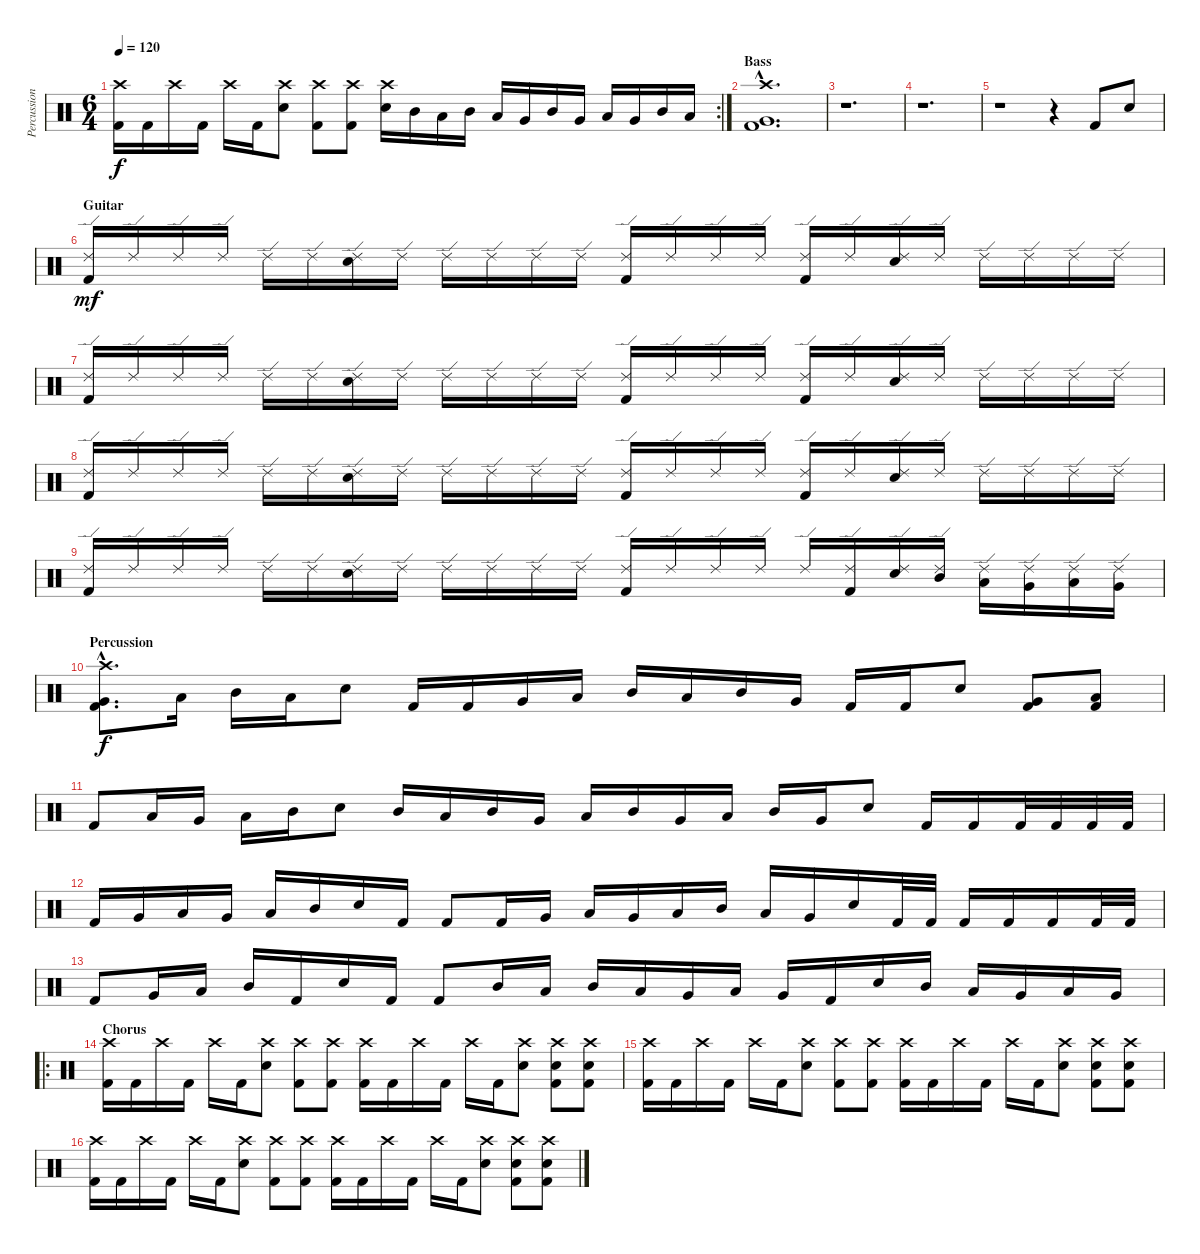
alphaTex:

\track ("Percussion" "Percussion") {instrument percussion}
\staff {score}
\articulation defaults
\rc 2
\ts (6 4)
\tempo 120
\clef neutral
\ks c
("Crash high (hit)" "Kick (hit) 2").16{dy f} "Kick (hit) 2".16 "Crash high (hit)".16 "Kick (hit) 2".16 "Crash high (hit)".16 "Kick (hit) 2".16 ("Crash high (hit)" "Snare (hit) 2").8 ("Crash high (hit)" "Kick (hit) 2").8 ("Crash high (hit)" "Kick (hit) 2").8 ("Crash high (hit)" "Snare (hit) 2").16 "Mid Tom (hit)".16 "Low Tom (hit)".16 "Mid Tom (hit)".16 "Low Tom (hit)".16 "Very Low Tom (hit)".16 "Mid Tom (hit)".16 "Very Low Tom (hit)".16 "Low Tom (hit)".16 "Very Low Tom (hit)".16 "Mid Tom (hit)".16 "Low Tom (hit)".16 |
\section ("" "Bass")
("Crash high (hit)"{hac} "Very Low Tom (hit)"{hac} "Kick (hit) 2"{hac}).1{d} |
r.1{d} |
r.1{d} |
r.1 r.4 "Kick (hit) 2".8 "Snare (hit) 2".8 |
\section ("" "Guitar")
("Ride (edge) 2" "Kick (hit) 2").16{dy mf} "Ride (edge) 2".16 "Ride (edge) 2".16 "Ride (edge) 2".16 "Ride (edge) 2".16 "Ride (edge) 2".16 ("Ride (edge) 2" "Snare (hit) 2").16 "Ride (edge) 2".16 "Ride (edge) 2".16 "Ride (edge) 2".16 "Ride (edge) 2".16 "Ride (edge) 2".16 ("Ride (edge) 2" "Kick (hit) 2").16 "Ride (edge) 2".16 "Ride (edge) 2".16 "Ride (edge) 2".16 ("Ride (edge) 2" "Kick (hit) 2").16 "Ride (edge) 2".16 ("Ride (edge) 2" "Snare (hit) 2").16 "Ride (edge) 2".16 "Ride (edge) 2".16 "Ride (edge) 2".16 "Ride (edge) 2".16 "Ride (edge) 2".16 |
("Ride (edge) 2" "Kick (hit) 2").16 "Ride (edge) 2".16 "Ride (edge) 2".16 "Ride (edge) 2".16 "Ride (edge) 2".16 "Ride (edge) 2".16 ("Ride (edge) 2" "Snare (hit) 2").16 "Ride (edge) 2".16 "Ride (edge) 2".16 "Ride (edge) 2".16 "Ride (edge) 2".16 "Ride (edge) 2".16 ("Ride (edge) 2" "Kick (hit) 2").16 "Ride (edge) 2".16 "Ride (edge) 2".16 "Ride (edge) 2".16 ("Ride (edge) 2" "Kick (hit) 2").16 "Ride (edge) 2".16 ("Ride (edge) 2" "Snare (hit) 2").16 "Ride (edge) 2".16 "Ride (edge) 2".16 "Ride (edge) 2".16 "Ride (edge) 2".16 "Ride (edge) 2".16 |
("Ride (edge) 2" "Kick (hit) 2").16 "Ride (edge) 2".16 "Ride (edge) 2".16 "Ride (edge) 2".16 "Ride (edge) 2".16 "Ride (edge) 2".16 ("Ride (edge) 2" "Snare (hit) 2").16 "Ride (edge) 2".16 "Ride (edge) 2".16 "Ride (edge) 2".16 "Ride (edge) 2".16 "Ride (edge) 2".16 ("Ride (edge) 2" "Kick (hit) 2").16 "Ride (edge) 2".16 "Ride (edge) 2".16 "Ride (edge) 2".16 ("Ride (edge) 2" "Kick (hit) 2").16 "Ride (edge) 2".16 ("Ride (edge) 2" "Snare (hit) 2").16 "Ride (edge) 2".16 "Ride (edge) 2".16 "Ride (edge) 2".16 "Ride (edge) 2".16 "Ride (edge) 2".16 |
("Ride (edge) 2" "Kick (hit) 2").16 "Ride (edge) 2".16 "Ride (edge) 2".16 "Ride (edge) 2".16 "Ride (edge) 2".16 "Ride (edge) 2".16 ("Ride (edge) 2" "Snare (hit) 2").16 "Ride (edge) 2".16 "Ride (edge) 2".16 "Ride (edge) 2".16 "Ride (edge) 2".16 "Ride (edge) 2".16 ("Ride (edge) 2" "Kick (hit) 2").16 "Ride (edge) 2".16 "Ride (edge) 2".16 "Ride (edge) 2".16 "Ride (edge) 2".16 ("Ride (edge) 2" "Kick (hit) 2").16 ("Ride (edge) 2" "Snare (hit) 2").16 ("Ride (edge) 2" "Mid Tom (hit)").16 ("Ride (edge) 2" "Low Tom (hit)").16 ("Ride (edge) 2" "Very Low Tom (hit)").16 ("Ride (edge) 2" "Low Tom (hit)").16 ("Ride (edge) 2" "Very Low Tom (hit)").16 |
\section ("" "Percussion")
("Crash high (hit)"{hac} "Very Low Tom (hit)"{hac} "Kick (hit) 2"{hac}).8{d dy f} "Low Tom (hit)".16 "Mid Tom (hit)".16 "Low Tom (hit)".16 "Snare (hit) 2".8 "Kick (hit) 2".16 "Kick (hit) 2".16 "Very Low Tom (hit)".16 "Low Tom (hit)".16 "Mid Tom (hit)".16 "Low Tom (hit)".16 "Mid Tom (hit)".16 "Very Low Tom (hit)".16 "Kick (hit) 2".16 "Kick (hit) 2".16 "Snare (hit) 2".8 ("Very Low Tom (hit)" "Kick (hit) 2").8 ("Low Tom (hit)" "Kick (hit) 2").8 |
"Kick (hit) 2".8 "Low Tom (hit)".16 "Very Low Tom (hit)".16 "Low Tom (hit)".16 "Mid Tom (hit)".16 "Snare (hit) 2".8 "Mid Tom (hit)".16 "Low Tom (hit)".16 "Mid Tom (hit)".16 "Very Low Tom (hit)".16 "Low Tom (hit)".16 "Mid Tom (hit)".16 "Very Low Tom (hit)".16 "Low Tom (hit)".16 "Mid Tom (hit)".16 "Very Low Tom (hit)".16 "Snare (hit) 2".8 "Kick (hit) 2".16 "Kick (hit) 2".16 "Kick (hit) 2".32 "Kick (hit) 2".32 "Kick (hit) 2".32 "Kick (hit) 2".32 |
"Kick (hit) 2".16 "Very Low Tom (hit)".16 "Low Tom (hit)".16 "Very Low Tom (hit)".16 "Low Tom (hit)".16 "Mid Tom (hit)".16 "Snare (hit) 2".16 "Kick (hit) 2".16 "Kick (hit) 2".8 "Kick (hit) 2".16 "Very Low Tom (hit)".16 "Low Tom (hit)".16 "Very Low Tom (hit)".16 "Low Tom (hit)".16 "Mid Tom (hit)".16 "Low Tom (hit)".16 "Very Low Tom (hit)".16 "Snare (hit) 2".16 "Kick (hit) 2".32 "Kick (hit) 2".32 "Kick (hit) 2".16 "Kick (hit) 2".16 "Kick (hit) 2".16 "Kick (hit) 2".32 "Kick (hit) 2".32 |
"Kick (hit) 2".8 "Very Low Tom (hit)".16 "Low Tom (hit)".16 "Mid Tom (hit)".16 "Kick (hit) 2".16 "Snare (hit) 2".16 "Kick (hit) 2".16 "Kick (hit) 2".8 "Mid Tom (hit)".16 "Low Tom (hit)".16 "Mid Tom (hit)".16 "Low Tom (hit)".16 "Very Low Tom (hit)".16 "Low Tom (hit)".16 "Very Low Tom (hit)".16 "Kick (hit) 2".16 "Snare (hit) 2".16 "Mid Tom (hit)".16 "Low Tom (hit)".16 "Very Low Tom (hit)".16 "Low Tom (hit)".16 "Very Low Tom (hit)".16 |
\ro
\section ("" "Chorus")
("Crash high (hit)" "Kick (hit) 2").16 "Kick (hit) 2".16 "Crash high (hit)".16 "Kick (hit) 2".16 "Crash high (hit)".16 "Kick (hit) 2".16 ("Crash high (hit)" "Snare (hit) 2").8 ("Crash high (hit)" "Kick (hit) 2").8 ("Crash high (hit)" "Kick (hit) 2").8 ("Crash high (hit)" "Kick (hit) 2").16 "Kick (hit) 2".16 "Crash high (hit)".16 "Kick (hit) 2".16 "Crash high (hit)".16 "Kick (hit) 2".16 ("Crash high (hit)" "Snare (hit) 2").8 ("Crash high (hit)" "Snare (hit) 2" "Kick (hit) 2").8 ("Crash high (hit)" "Snare (hit) 2" "Kick (hit) 2").8 |
("Crash high (hit)" "Kick (hit) 2").16 "Kick (hit) 2".16 "Crash high (hit)".16 "Kick (hit) 2".16 "Crash high (hit)".16 "Kick (hit) 2".16 ("Crash high (hit)" "Snare (hit) 2").8 ("Crash high (hit)" "Kick (hit) 2").8 ("Crash high (hit)" "Kick (hit) 2").8 ("Crash high (hit)" "Kick (hit) 2").16 "Kick (hit) 2".16 "Crash high (hit)".16 "Kick (hit) 2".16 "Crash high (hit)".16 "Kick (hit) 2".16 ("Crash high (hit)" "Snare (hit) 2").8 ("Crash high (hit)" "Snare (hit) 2" "Kick (hit) 2").8 ("Crash high (hit)" "Snare (hit) 2" "Kick (hit) 2").8 |
("Crash high (hit)" "Kick (hit) 2").16 "Kick (hit) 2".16 "Crash high (hit)".16 "Kick (hit) 2".16 "Crash high (hit)".16 "Kick (hit) 2".16 ("Crash high (hit)" "Snare (hit) 2").8 ("Crash high (hit)" "Kick (hit) 2").8 ("Crash high (hit)" "Kick (hit) 2").8 ("Crash high (hit)" "Kick (hit) 2").16 "Kick (hit) 2".16 "Crash high (hit)".16 "Kick (hit) 2".16 "Crash high (hit)".16 "Kick (hit) 2".16 ("Crash high (hit)" "Snare (hit) 2").8 ("Crash high (hit)" "Snare (hit) 2" "Kick (hit) 2").8 ("Crash high (hit)" "Snare (hit) 2" "Kick (hit) 2").8
